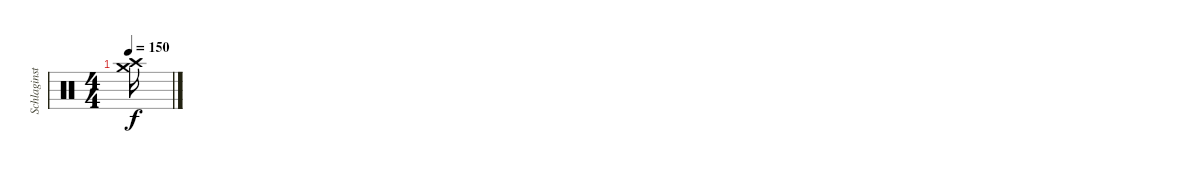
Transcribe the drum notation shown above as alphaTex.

\track ("Schlaginstrumente - Auswahl" "Schlaginst") {instrument percussion}
\staff {score}
\articulation defaults
\ts (4 4)
\tempo 150
\clef neutral
\ks c
("Crash high (hit)" "Crash medium (hit)").16{dy f}
